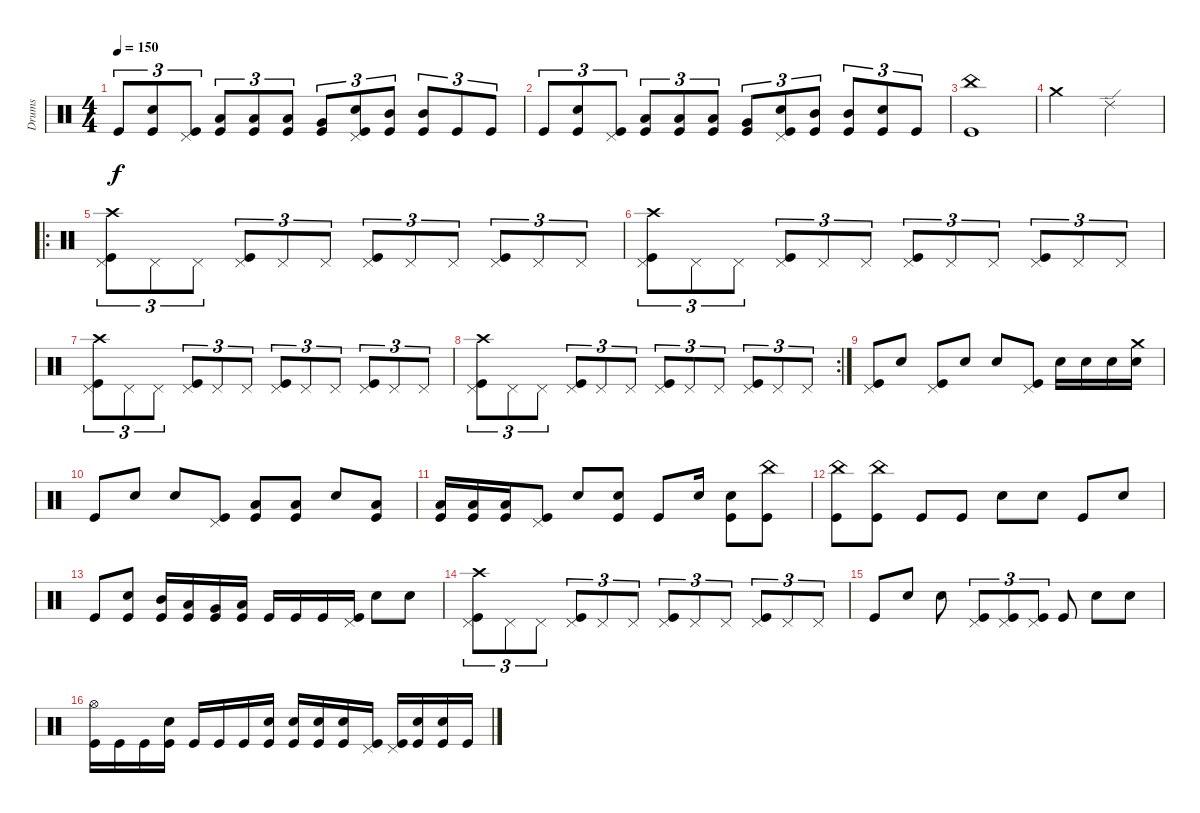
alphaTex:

\track ("Drums" "Drums") {instrument percussion}
\staff {score}
\articulation defaults
\ts (4 4)
\tempo 150
\clef neutral
\ks c "Kick (hit)".8{tu (3 2) dy f}
("Kick (hit)" "Snare (hit) 2").8{tu (3 2)} ("Kick (hit)" "Pedal Hi-Hat (hit)").8{tu (3 2)} ("Kick (hit)" "Low Floor Tom (hit)").8{tu (3 2)} ("Kick (hit)" "Low Tom (hit)").8{tu (3 2)} ("Kick (hit)" "Low Tom (hit)").8{tu (3 2)} ("Kick (hit)" "Very Low Tom (hit)").8{tu (3 2)} ("Kick (hit)" "Snare (hit) 2" "Pedal Hi-Hat (hit)").8{tu (3 2)} ("Kick (hit)" "Mid Tom (hit)").8{tu (3 2)} ("Kick (hit)" "Mid Tom (hit)").8{tu (3 2)} "Kick (hit)".8{tu (3 2)} "Kick (hit)".8{tu (3 2)} |
"Kick (hit)".8{tu (3 2)} ("Kick (hit)" "Snare (hit) 2").8{tu (3 2)} ("Kick (hit)" "Pedal Hi-Hat (hit)").8{tu (3 2)} ("Kick (hit)" "Low Floor Tom (hit)").8{tu (3 2)} ("Kick (hit)" "Low Tom (hit)").8{tu (3 2)} ("Kick (hit)" "Low Tom (hit)").8{tu (3 2)} ("Kick (hit)" "Very Low Tom (hit)").8{tu (3 2)} ("Kick (hit)" "Snare (hit) 2" "Pedal Hi-Hat (hit)").8{tu (3 2)} ("Kick (hit)" "Mid Tom (hit)").8{tu (3 2)} ("Kick (hit)" "Mid Tom (hit)").8{tu (3 2)} ("Kick (hit)" "Snare (hit) 2").8{tu (3 2)} "Kick (hit)".8{tu (3 2)} |
("Kick (hit)" "China (hit)").1 |
"Crash medium (hit)".2 "Ride (edge) 2".2 |
\ro
("Kick (hit)" "Pedal Hi-Hat (hit)" "Crash high (hit)").8{tu (3 2)} "Pedal Hi-Hat (hit)".8{tu (3 2)} "Pedal Hi-Hat (hit)".8{tu (3 2)} ("Kick (hit)" "Pedal Hi-Hat (hit)").8{tu (3 2)} "Pedal Hi-Hat (hit)".8{tu (3 2)} "Pedal Hi-Hat (hit)".8{tu (3 2)} ("Kick (hit)" "Pedal Hi-Hat (hit)").8{tu (3 2)} "Pedal Hi-Hat (hit)".8{tu (3 2)} "Pedal Hi-Hat (hit)".8{tu (3 2)} ("Kick (hit)" "Pedal Hi-Hat (hit)").8{tu (3 2)} "Pedal Hi-Hat (hit)".8{tu (3 2)} "Pedal Hi-Hat (hit)".8{tu (3 2)} |
("Kick (hit)" "Pedal Hi-Hat (hit)" "Crash high (hit)").8{tu (3 2)} "Pedal Hi-Hat (hit)".8{tu (3 2)} "Pedal Hi-Hat (hit)".8{tu (3 2)} ("Kick (hit)" "Pedal Hi-Hat (hit)").8{tu (3 2)} "Pedal Hi-Hat (hit)".8{tu (3 2)} "Pedal Hi-Hat (hit)".8{tu (3 2)} ("Kick (hit)" "Pedal Hi-Hat (hit)").8{tu (3 2)} "Pedal Hi-Hat (hit)".8{tu (3 2)} "Pedal Hi-Hat (hit)".8{tu (3 2)} ("Kick (hit)" "Pedal Hi-Hat (hit)").8{tu (3 2)} "Pedal Hi-Hat (hit)".8{tu (3 2)} "Pedal Hi-Hat (hit)".8{tu (3 2)} |
("Kick (hit)" "Pedal Hi-Hat (hit)" "Crash high (hit)").8{tu (3 2)} "Pedal Hi-Hat (hit)".8{tu (3 2)} "Pedal Hi-Hat (hit)".8{tu (3 2)} ("Kick (hit)" "Pedal Hi-Hat (hit)").8{tu (3 2)} "Pedal Hi-Hat (hit)".8{tu (3 2)} "Pedal Hi-Hat (hit)".8{tu (3 2)} ("Kick (hit)" "Pedal Hi-Hat (hit)").8{tu (3 2)} "Pedal Hi-Hat (hit)".8{tu (3 2)} "Pedal Hi-Hat (hit)".8{tu (3 2)} ("Kick (hit)" "Pedal Hi-Hat (hit)").8{tu (3 2)} "Pedal Hi-Hat (hit)".8{tu (3 2)} "Pedal Hi-Hat (hit)".8{tu (3 2)} |
\rc 2
("Kick (hit)" "Pedal Hi-Hat (hit)" "Crash high (hit)").8{tu (3 2)} "Pedal Hi-Hat (hit)".8{tu (3 2)} "Pedal Hi-Hat (hit)".8{tu (3 2)} ("Kick (hit)" "Pedal Hi-Hat (hit)").8{tu (3 2)} "Pedal Hi-Hat (hit)".8{tu (3 2)} "Pedal Hi-Hat (hit)".8{tu (3 2)} ("Kick (hit)" "Pedal Hi-Hat (hit)").8{tu (3 2)} "Pedal Hi-Hat (hit)".8{tu (3 2)} "Pedal Hi-Hat (hit)".8{tu (3 2)} ("Kick (hit)" "Pedal Hi-Hat (hit)").8{tu (3 2)} "Pedal Hi-Hat (hit)".8{tu (3 2)} "Pedal Hi-Hat (hit)".8{tu (3 2)} |
("Kick (hit)" "Pedal Hi-Hat (hit)").8 "Snare (hit) 2".8 ("Kick (hit)" "Pedal Hi-Hat (hit)").8 "Snare (hit) 2".8 "Snare (hit) 2".8 ("Kick (hit)" "Pedal Hi-Hat (hit)").8 "Snare (hit) 2".16 "Snare (hit) 2".16 "Snare (hit) 2".16 ("Snare (hit) 2" "Crash medium (hit)").16 |
"Kick (hit)".8 "Snare (hit) 2".8 "Snare (hit) 2".8 ("Kick (hit)" "Pedal Hi-Hat (hit)").8 ("Kick (hit)" "Low Floor Tom (hit)").8 ("Kick (hit)" "Low Floor Tom (hit)").8 "Snare (hit) 2".8 ("Kick (hit)" "Low Floor Tom (hit)").8 |
("Kick (hit)" "Low Floor Tom (hit)").16 ("Kick (hit)" "Low Floor Tom (hit)").16 ("Kick (hit)" "Low Floor Tom (hit)").16 ("Kick (hit)" "Pedal Hi-Hat (hit)").8 "Snare (hit) 2".8 ("Kick (hit)" "Snare (hit) 2").8 "Kick (hit)".8 "Snare (hit) 2".16 ("Kick (hit)" "Snare (hit) 2").8 ("Kick (hit)" "China (hit)").8 |
("Kick (hit)" "China (hit)").8 ("Kick (hit)" "China (hit)").8 "Kick (hit)".8 "Kick (hit)".8 "Snare (hit) 2".8 "Snare (hit) 2".8 "Kick (hit)".8 "Snare (hit) 2".8 |
"Kick (hit)".8 ("Kick (hit)" "Snare (hit) 2").8 ("Kick (hit)" "Mid Tom (hit)").16 ("Kick (hit)" "Low Tom (hit)").16 ("Kick (hit)" "Very Low Tom (hit)").16 ("Kick (hit)" "Low Floor Tom (hit)").16 "Kick (hit)".16 "Kick (hit)".16 "Kick (hit)".16 ("Kick (hit)" "Pedal Hi-Hat (hit)").16 "Snare (hit) 2".8 "Snare (hit) 2".8 |
("Kick (hit)" "Pedal Hi-Hat (hit)" "Crash high (hit)").8{tu (3 2)} "Pedal Hi-Hat (hit)".8{tu (3 2)} "Pedal Hi-Hat (hit)".8{tu (3 2)} ("Kick (hit)" "Pedal Hi-Hat (hit)").8{tu (3 2)} "Pedal Hi-Hat (hit)".8{tu (3 2)} "Pedal Hi-Hat (hit)".8{tu (3 2)} ("Kick (hit)" "Pedal Hi-Hat (hit)").8{tu (3 2)} "Pedal Hi-Hat (hit)".8{tu (3 2)} "Pedal Hi-Hat (hit)".8{tu (3 2)} ("Kick (hit)" "Pedal Hi-Hat (hit)").8{tu (3 2)} "Pedal Hi-Hat (hit)".8{tu (3 2)} "Pedal Hi-Hat (hit)".8{tu (3 2)} |
"Kick (hit)".8 "Snare (hit) 2".8 "Snare (hit) 2".8 ("Kick (hit)" "Pedal Hi-Hat (hit)").8{tu (3 2)} ("Kick (hit)" "Pedal Hi-Hat (hit)").8{tu (3 2)} ("Kick (hit)" "Pedal Hi-Hat (hit)").8{tu (3 2)} "Kick (hit)".8 "Snare (hit) 2".8 "Snare (hit) 2".8 |
("Kick (hit)" "Hi-Hat (open)").16 "Kick (hit)".16 "Kick (hit)".16 ("Kick (hit)" "Snare (hit) 2").16 "Kick (hit)".16 "Kick (hit)".16 "Kick (hit)".16 ("Kick (hit)" "Snare (hit) 2").16 ("Kick (hit)" "Snare (hit) 2").16 ("Kick (hit)" "Snare (hit) 2").16 ("Kick (hit)" "Snare (hit) 2").16 ("Kick (hit)" "Pedal Hi-Hat (hit)").16 ("Kick (hit)" "Pedal Hi-Hat (hit)").16 ("Kick (hit)" "Snare (hit) 2").16 ("Kick (hit)" "Snare (hit) 2").16 "Kick (hit)".16
